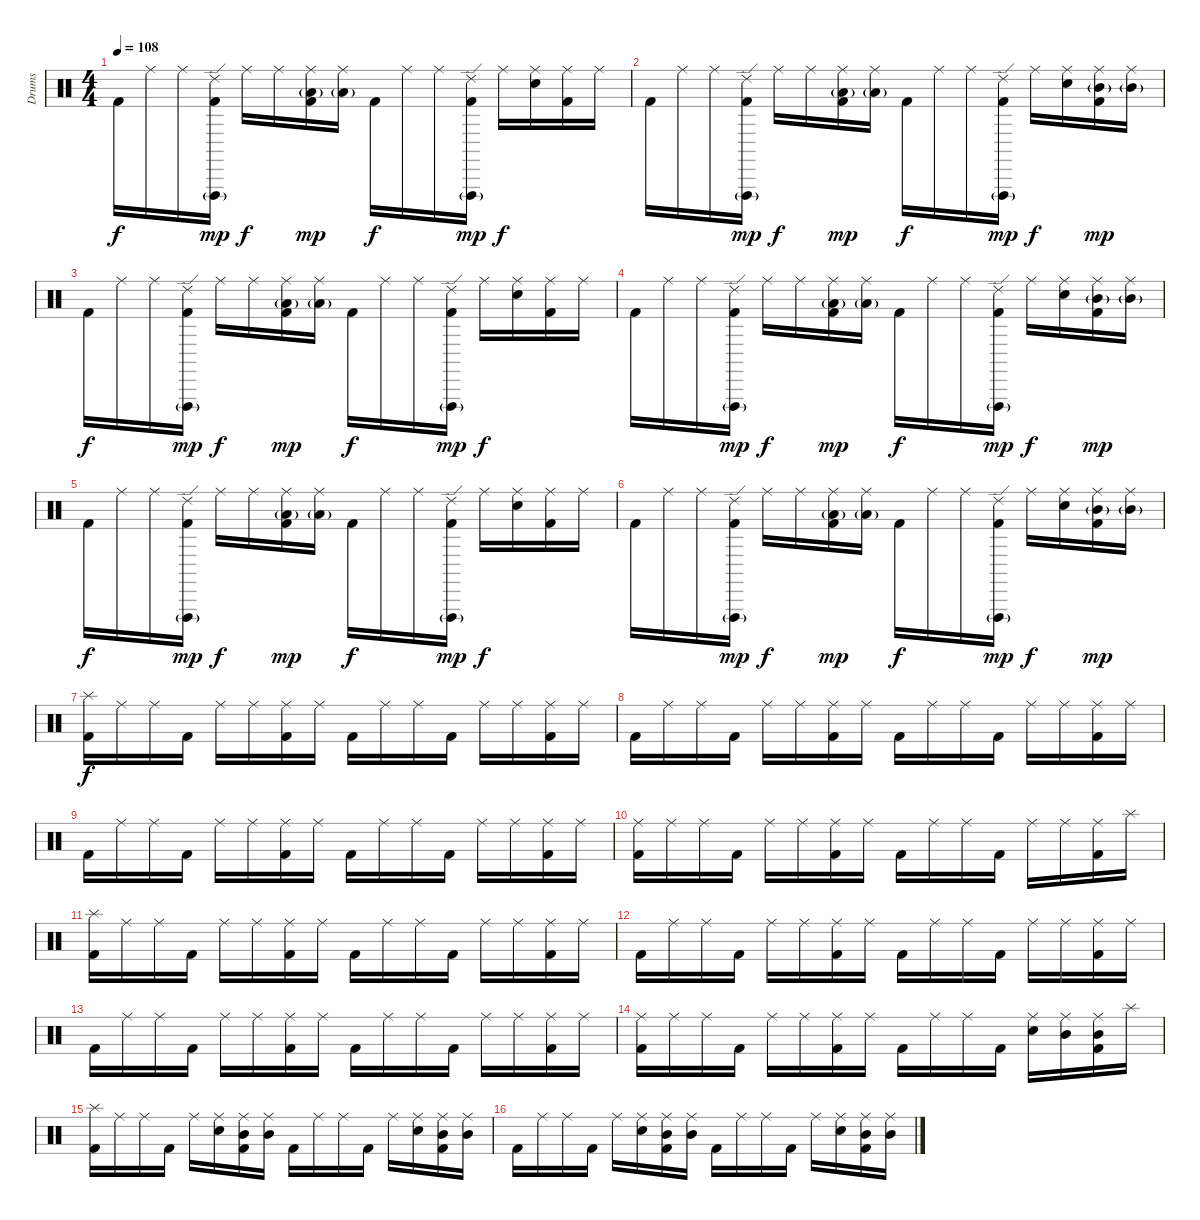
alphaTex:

\track ("Drums" "Drums") {instrument percussion}
\staff {score}
\articulation defaults
\ts (4 4)
\tempo 108
\clef neutral
\ks c "Kick (hit) 2".16{dy f} "Ride (middle)".16 "Ride (middle)".16
("Vibraslap (hit)"{g} "Ride (edge) 2" "Kick (hit) 2").16{dy mp} "Ride (middle)".16{dy f} "Ride (middle)".16 ("Ride (middle)" "Kick (hit) 2" "Low Tom (hit)"{g}).16{dy mp} ("Ride (middle)" "Low Tom (hit)"{g}).16 "Kick (hit) 2".16{dy f} "Ride (middle)".16 "Ride (middle)".16 ("Vibraslap (hit)"{g} "Ride (edge) 2" "Kick (hit) 2").16{dy mp} "Ride (middle)".16{dy f} ("Ride (middle)" "Snare (hit) 2").16 ("Ride (middle)" "Kick (hit) 2").16 "Ride (middle)".16 |
"Kick (hit) 2".16 "Ride (middle)".16 "Ride (middle)".16 ("Vibraslap (hit)"{g} "Ride (edge) 2" "Kick (hit) 2").16{dy mp} "Ride (middle)".16{dy f} "Ride (middle)".16 ("Ride (middle)" "Kick (hit) 2" "Low Tom (hit)"{g}).16{dy mp} ("Ride (middle)" "Low Tom (hit)"{g}).16 "Kick (hit) 2".16{dy f} "Ride (middle)".16 "Ride (middle)".16 ("Vibraslap (hit)"{g} "Ride (edge) 2" "Kick (hit) 2").16{dy mp} "Ride (middle)".16{dy f} ("Ride (middle)" "Snare (hit) 2").16 ("Ride (middle)" "Mid Tom (hit)"{g} "Kick (hit) 2").16{dy mp} ("Ride (middle)" "Mid Tom (hit)"{g}).16 |
"Kick (hit) 2".16{dy f} "Ride (middle)".16 "Ride (middle)".16 ("Vibraslap (hit)"{g} "Ride (edge) 2" "Kick (hit) 2").16{dy mp} "Ride (middle)".16{dy f} "Ride (middle)".16 ("Ride (middle)" "Kick (hit) 2" "Low Tom (hit)"{g}).16{dy mp} ("Ride (middle)" "Low Tom (hit)"{g}).16 "Kick (hit) 2".16{dy f} "Ride (middle)".16 "Ride (middle)".16 ("Vibraslap (hit)"{g} "Ride (edge) 2" "Kick (hit) 2").16{dy mp} "Ride (middle)".16{dy f} ("Ride (middle)" "Snare (hit) 2").16 ("Ride (middle)" "Kick (hit) 2").16 "Ride (middle)".16 |
"Kick (hit) 2".16 "Ride (middle)".16 "Ride (middle)".16 ("Vibraslap (hit)"{g} "Ride (edge) 2" "Kick (hit) 2").16{dy mp} "Ride (middle)".16{dy f} "Ride (middle)".16 ("Ride (middle)" "Kick (hit) 2" "Low Tom (hit)"{g}).16{dy mp} ("Ride (middle)" "Low Tom (hit)"{g}).16 "Kick (hit) 2".16{dy f} "Ride (middle)".16 "Ride (middle)".16 ("Vibraslap (hit)"{g} "Ride (edge) 2" "Kick (hit) 2").16{dy mp} "Ride (middle)".16{dy f} ("Ride (middle)" "Snare (hit) 2").16 ("Ride (middle)" "Mid Tom (hit)"{g} "Kick (hit) 2").16{dy mp} ("Ride (middle)" "Mid Tom (hit)"{g}).16 |
"Kick (hit) 2".16{dy f} "Ride (middle)".16 "Ride (middle)".16 ("Vibraslap (hit)"{g} "Ride (edge) 2" "Kick (hit) 2").16{dy mp} "Ride (middle)".16{dy f} "Ride (middle)".16 ("Ride (middle)" "Kick (hit) 2" "Low Tom (hit)"{g}).16{dy mp} ("Ride (middle)" "Low Tom (hit)"{g}).16 "Kick (hit) 2".16{dy f} "Ride (middle)".16 "Ride (middle)".16 ("Vibraslap (hit)"{g} "Ride (edge) 2" "Kick (hit) 2").16{dy mp} "Ride (middle)".16{dy f} ("Ride (middle)" "Snare (hit) 2").16 ("Ride (middle)" "Kick (hit) 2").16 "Ride (middle)".16 |
"Kick (hit) 2".16 "Ride (middle)".16 "Ride (middle)".16 ("Vibraslap (hit)"{g} "Ride (edge) 2" "Kick (hit) 2").16{dy mp} "Ride (middle)".16{dy f} "Ride (middle)".16 ("Ride (middle)" "Kick (hit) 2" "Low Tom (hit)"{g}).16{dy mp} ("Ride (middle)" "Low Tom (hit)"{g}).16 "Kick (hit) 2".16{dy f} "Ride (middle)".16 "Ride (middle)".16 ("Vibraslap (hit)"{g} "Ride (edge) 2" "Kick (hit) 2").16{dy mp} "Ride (middle)".16{dy f} ("Ride (middle)" "Snare (hit) 2").16 ("Ride (middle)" "Mid Tom (hit)"{g} "Kick (hit) 2").16{dy mp} ("Ride (middle)" "Mid Tom (hit)"{g}).16 |
("Splash (hit)" "Kick (hit) 2").16{dy f} "Ride (middle)".16 "Ride (middle)".16 "Kick (hit) 2".16 "Ride (middle)".16 "Ride (middle)".16 ("Ride (middle)" "Kick (hit) 2").16 "Ride (middle)".16 "Kick (hit) 2".16 "Ride (middle)".16 "Ride (middle)".16 "Kick (hit) 2".16 "Ride (middle)".16 "Ride (middle)".16 ("Ride (middle)" "Kick (hit) 2").16 "Ride (middle)".16 |
"Kick (hit) 2".16 "Ride (middle)".16 "Ride (middle)".16 "Kick (hit) 2".16 "Ride (middle)".16 "Ride (middle)".16 ("Ride (middle)" "Kick (hit) 2").16 "Ride (middle)".16 "Kick (hit) 2".16 "Ride (middle)".16 "Ride (middle)".16 "Kick (hit) 2".16 "Ride (middle)".16 "Ride (middle)".16 ("Ride (middle)" "Kick (hit) 2").16 "Ride (middle)".16 |
"Kick (hit) 2".16 "Ride (middle)".16 "Ride (middle)".16 "Kick (hit) 2".16 "Ride (middle)".16 "Ride (middle)".16 ("Ride (middle)" "Kick (hit) 2").16 "Ride (middle)".16 "Kick (hit) 2".16 "Ride (middle)".16 "Ride (middle)".16 "Kick (hit) 2".16 "Ride (middle)".16 "Ride (middle)".16 ("Ride (middle)" "Kick (hit) 2").16 "Ride (middle)".16 |
("Ride (middle)" "Kick (hit) 2").16 "Ride (middle)".16 "Ride (middle)".16 "Kick (hit) 2".16 "Ride (middle)".16 "Ride (middle)".16 ("Ride (middle)" "Kick (hit) 2").16 "Ride (middle)".16 "Kick (hit) 2".16 "Ride (middle)".16 "Ride (middle)".16 "Kick (hit) 2".16 "Ride (middle)".16 "Ride (middle)".16 ("Ride (middle)" "Kick (hit) 2").16 "Splash (hit)".16 |
("Splash (hit)" "Kick (hit) 2").16 "Ride (middle)".16 "Ride (middle)".16 "Kick (hit) 2".16 "Ride (middle)".16 "Ride (middle)".16 ("Ride (middle)" "Kick (hit) 2").16 "Ride (middle)".16 "Kick (hit) 2".16 "Ride (middle)".16 "Ride (middle)".16 "Kick (hit) 2".16 "Ride (middle)".16 "Ride (middle)".16 ("Ride (middle)" "Kick (hit) 2").16 "Ride (middle)".16 |
"Kick (hit) 2".16 "Ride (middle)".16 "Ride (middle)".16 "Kick (hit) 2".16 "Ride (middle)".16 "Ride (middle)".16 ("Ride (middle)" "Kick (hit) 2").16 "Ride (middle)".16 "Kick (hit) 2".16 "Ride (middle)".16 "Ride (middle)".16 "Kick (hit) 2".16 "Ride (middle)".16 "Ride (middle)".16 ("Ride (middle)" "Kick (hit) 2").16 "Ride (middle)".16 |
"Kick (hit) 2".16 "Ride (middle)".16 "Ride (middle)".16 "Kick (hit) 2".16 "Ride (middle)".16 "Ride (middle)".16 ("Ride (middle)" "Kick (hit) 2").16 "Ride (middle)".16 "Kick (hit) 2".16 "Ride (middle)".16 "Ride (middle)".16 "Kick (hit) 2".16 "Ride (middle)".16 "Ride (middle)".16 ("Ride (middle)" "Kick (hit) 2").16 "Ride (middle)".16 |
("Ride (middle)" "Kick (hit) 2").16 "Ride (middle)".16 "Ride (middle)".16 "Kick (hit) 2".16 "Ride (middle)".16 "Ride (middle)".16 ("Ride (middle)" "Kick (hit) 2").16 "Ride (middle)".16 "Kick (hit) 2".16 "Ride (middle)".16 "Ride (middle)".16 "Kick (hit) 2".16 ("Ride (middle)" "Snare (hit) 2").16 ("Ride (middle)" "Mid Tom (hit)").16 ("Ride (middle)" "Mid Tom (hit)" "Kick (hit) 2").16 "Splash (hit)".16 |
("Splash (hit)" "Kick (hit) 2").16 "Ride (middle)".16 "Ride (middle)".16 "Kick (hit) 2".16 "Ride (middle)".16 ("Ride (middle)" "Snare (hit) 2").16 ("Ride (middle)" "Mid Tom (hit)" "Kick (hit) 2").16 ("Ride (middle)" "Mid Tom (hit)").16 "Kick (hit) 2".16 "Ride (middle)".16 "Ride (middle)".16 "Kick (hit) 2".16 "Ride (middle)".16 ("Ride (middle)" "Snare (hit) 2").16 ("Ride (middle)" "Mid Tom (hit)" "Kick (hit) 2").16 ("Ride (middle)" "Mid Tom (hit)").16 |
"Kick (hit) 2".16 "Ride (middle)".16 "Ride (middle)".16 "Kick (hit) 2".16 "Ride (middle)".16 ("Ride (middle)" "Snare (hit) 2").16 ("Ride (middle)" "Mid Tom (hit)" "Kick (hit) 2").16 ("Ride (middle)" "Mid Tom (hit)").16 "Kick (hit) 2".16 "Ride (middle)".16 "Ride (middle)".16 "Kick (hit) 2".16 "Ride (middle)".16 ("Ride (middle)" "Snare (hit) 2").16 ("Ride (middle)" "Mid Tom (hit)" "Kick (hit) 2").16 ("Ride (middle)" "Mid Tom (hit)").16
